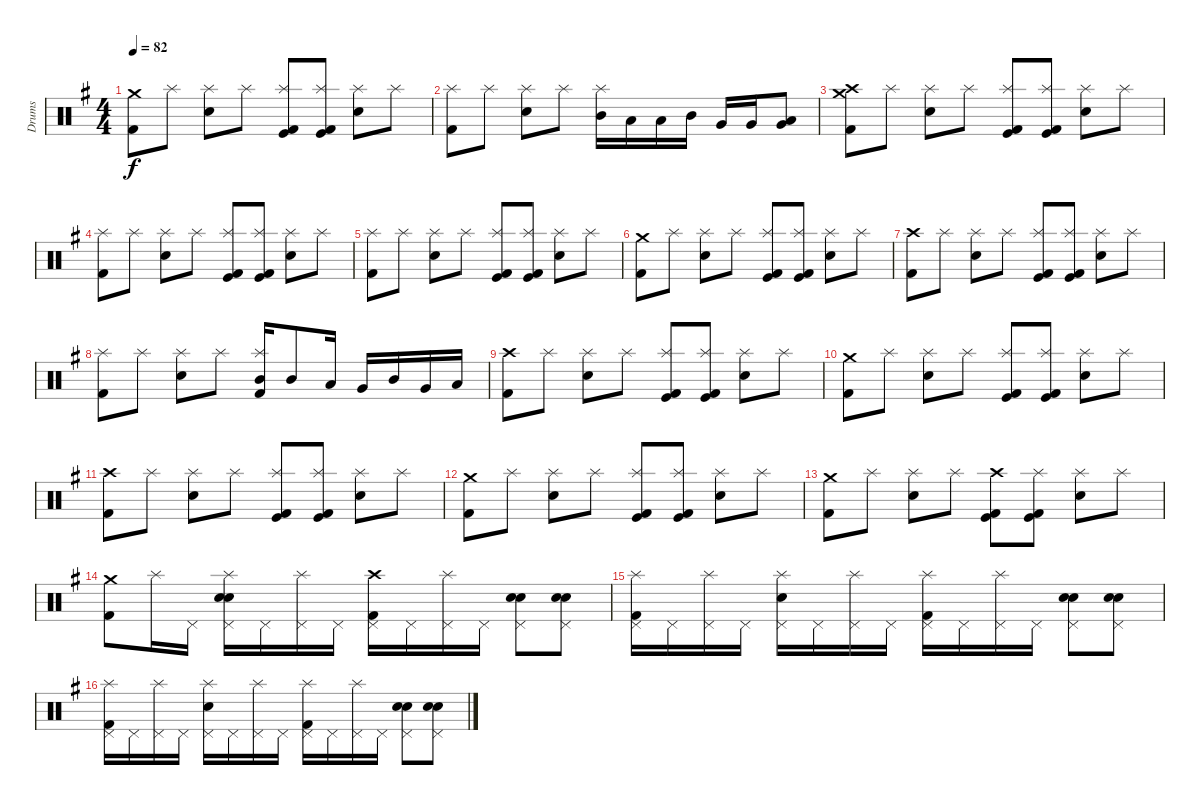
\track ("Drums" "Drums") {instrument percussion}
\staff {score}
\articulation defaults
\ts (4 4)
\tempo 82
\clef neutral
\ks eminor
("Crash medium (hit)" "Kick (hit) 2").8{dy f} "Splash (hit)".8 ("Splash (hit)" "Snare (hit) 2").8 "Splash (hit)".8 ("Splash (hit)" "Kick (hit)" "Kick (hit) 2").8 ("Splash (hit)" "Kick (hit)" "Kick (hit) 2").8 ("Splash (hit)" "Snare (hit) 2").8 "Splash (hit)".8 |
("Splash (hit)" "Kick (hit) 2").8 "Splash (hit)".8 ("Splash (hit)" "Snare (hit) 2").8 "Splash (hit)".8 ("Splash (hit)" "Mid Tom (hit)").16 "Low Tom (hit)".16 "Low Tom (hit)".16 "Mid Tom (hit)".16 "Very Low Tom (hit)".16 "Very Low Tom (hit)".16 ("Low Floor Tom (hit)" "Very Low Tom (hit)").8 |
("Kick (hit) 2" "Crash high (hit)" "Crash medium (hit)").8 "Splash (hit)".8 ("Splash (hit)" "Snare (hit) 2").8 "Splash (hit)".8 ("Splash (hit)" "Kick (hit)" "Kick (hit) 2").8 ("Splash (hit)" "Kick (hit)" "Kick (hit) 2").8 ("Splash (hit)" "Snare (hit) 2").8 "Splash (hit)".8 |
("Splash (hit)" "Kick (hit) 2").8 "Splash (hit)".8 ("Splash (hit)" "Snare (hit) 2").8 "Splash (hit)".8 ("Splash (hit)" "Kick (hit)" "Kick (hit) 2").8 ("Splash (hit)" "Kick (hit)" "Kick (hit) 2").8 ("Splash (hit)" "Snare (hit) 2").8 "Splash (hit)".8 |
("Splash (hit)" "Kick (hit) 2").8 "Splash (hit)".8 ("Splash (hit)" "Snare (hit) 2").8 "Splash (hit)".8 ("Splash (hit)" "Kick (hit)" "Kick (hit) 2").8 ("Splash (hit)" "Kick (hit)" "Kick (hit) 2").8 ("Splash (hit)" "Snare (hit) 2").8 "Splash (hit)".8 |
("Kick (hit) 2" "Crash medium (hit)").8 "Splash (hit)".8 ("Splash (hit)" "Snare (hit) 2").8 "Splash (hit)".8 ("Splash (hit)" "Kick (hit)" "Kick (hit) 2").8 ("Splash (hit)" "Kick (hit)" "Kick (hit) 2").8 ("Splash (hit)" "Snare (hit) 2").8 "Splash (hit)".8 |
("Crash high (hit)" "Kick (hit) 2").8 "Splash (hit)".8 ("Splash (hit)" "Snare (hit) 2").8 "Splash (hit)".8 ("Splash (hit)" "Kick (hit)" "Kick (hit) 2").8 ("Splash (hit)" "Kick (hit)" "Kick (hit) 2").8 ("Splash (hit)" "Snare (hit) 2").8 "Splash (hit)".8 |
("Splash (hit)" "Kick (hit) 2").8 "Splash (hit)".8 ("Splash (hit)" "Snare (hit) 2").8 "Splash (hit)".8 ("Splash (hit)" "Kick (hit) 2" "Mid Tom (hit)").16 "Mid Tom (hit)".8 "Low Tom (hit)".16 "Very Low Tom (hit)".16 "Mid Tom (hit)".16 "Very Low Tom (hit)".16 "Low Floor Tom (hit)".16 |
("Kick (hit) 2" "Crash high (hit)").8 "Splash (hit)".8 ("Splash (hit)" "Snare (hit) 2").8 "Splash (hit)".8 ("Splash (hit)" "Kick (hit)" "Kick (hit) 2").8 ("Splash (hit)" "Kick (hit)" "Kick (hit) 2").8 ("Splash (hit)" "Snare (hit) 2").8 "Splash (hit)".8 |
("Kick (hit) 2" "Crash medium (hit)").8 "Splash (hit)".8 ("Splash (hit)" "Snare (hit) 2").8 "Splash (hit)".8 ("Splash (hit)" "Kick (hit)" "Kick (hit) 2").8 ("Splash (hit)" "Kick (hit)" "Kick (hit) 2").8 ("Splash (hit)" "Snare (hit) 2").8 "Splash (hit)".8 |
("Kick (hit) 2" "Crash high (hit)").8 "Splash (hit)".8 ("Splash (hit)" "Snare (hit) 2").8 "Splash (hit)".8 ("Splash (hit)" "Kick (hit)" "Kick (hit) 2").8 ("Splash (hit)" "Kick (hit)" "Kick (hit) 2").8 ("Splash (hit)" "Snare (hit) 2").8 "Splash (hit)".8 |
("Kick (hit) 2" "Crash medium (hit)").8 "Splash (hit)".8 ("Splash (hit)" "Snare (hit) 2").8 "Splash (hit)".8 ("Kick (hit)" "Splash (hit)" "Kick (hit) 2").8 ("Kick (hit)" "Splash (hit)" "Kick (hit) 2").8 ("Splash (hit)" "Snare (hit) 2").8 "Splash (hit)".8 |
("Kick (hit) 2" "Crash medium (hit)").8 "Splash (hit)".8 ("Splash (hit)" "Snare (hit) 2").8 "Splash (hit)".8 ("Kick (hit)" "Kick (hit) 2" "Crash high (hit)").8 ("Kick (hit)" "Splash (hit)" "Kick (hit) 2").8 ("Splash (hit)" "Snare (hit) 2").8 "Splash (hit)".8 |
("Crash medium (hit)" "Kick (hit) 2").8 "Splash (hit)".16{volume 16} "Pedal Hi-Hat (hit)".16{volume 16} ("Pedal Hi-Hat (hit)" "Splash (hit)" "Electric Snare (hit)" "Snare (hit) 2").16{volume 16} "Pedal Hi-Hat (hit)".16{volume 15} ("Pedal Hi-Hat (hit)" "Splash (hit)").16{volume 15} "Pedal Hi-Hat (hit)".16{volume 15} ("Pedal Hi-Hat (hit)" "Kick (hit) 2" "Crash high (hit)").16{volume 15} "Pedal Hi-Hat (hit)".16{volume 15} ("Pedal Hi-Hat (hit)" "Splash (hit)").16{volume 15} "Pedal Hi-Hat (hit)".16{volume 15} ("Pedal Hi-Hat (hit)" "Snare (hit) 2" "Electric Snare (hit)").8{volume 14} ("Pedal Hi-Hat (hit)" "Snare (hit) 2" "Electric Snare (hit)").8{volume 14} |
("Pedal Hi-Hat (hit)" "Splash (hit)" "Kick (hit) 2").16{volume 14} "Pedal Hi-Hat (hit)".16{volume 14} ("Pedal Hi-Hat (hit)" "Splash (hit)").16{volume 14} "Pedal Hi-Hat (hit)".16{volume 14} ("Pedal Hi-Hat (hit)" "Splash (hit)" "Snare (hit) 2").16{volume 14} "Pedal Hi-Hat (hit)".16{volume 13} ("Pedal Hi-Hat (hit)" "Splash (hit)").16{volume 13} "Pedal Hi-Hat (hit)".16{volume 13} ("Pedal Hi-Hat (hit)" "Splash (hit)" "Kick (hit) 2").16{volume 13} "Pedal Hi-Hat (hit)".16{volume 13} ("Pedal Hi-Hat (hit)" "Splash (hit)").16{volume 13} "Pedal Hi-Hat (hit)".16{volume 13} ("Pedal Hi-Hat (hit)" "Snare (hit) 2" "Electric Snare (hit)").8{volume 12} ("Snare (hit) 2" "Electric Snare (hit)" "Pedal Hi-Hat (hit)").8{volume 12} |
("Pedal Hi-Hat (hit)" "Kick (hit) 2" "Splash (hit)").16{volume 12} "Pedal Hi-Hat (hit)".16{volume 12} ("Pedal Hi-Hat (hit)" "Splash (hit)").16{volume 12} "Pedal Hi-Hat (hit)".16{volume 12} ("Pedal Hi-Hat (hit)" "Splash (hit)" "Snare (hit) 2").16{volume 12} "Pedal Hi-Hat (hit)".16{volume 11} ("Pedal Hi-Hat (hit)" "Splash (hit)").16{volume 11} "Pedal Hi-Hat (hit)".16{volume 11} ("Pedal Hi-Hat (hit)" "Splash (hit)" "Kick (hit) 2").16{volume 11} "Pedal Hi-Hat (hit)".16{volume 11} ("Pedal Hi-Hat (hit)" "Splash (hit)").16{volume 11} "Pedal Hi-Hat (hit)".16{volume 11} ("Pedal Hi-Hat (hit)" "Snare (hit) 2" "Electric Snare (hit)").8{volume 10} ("Pedal Hi-Hat (hit)" "Snare (hit) 2" "Electric Snare (hit)").8{volume 10}
